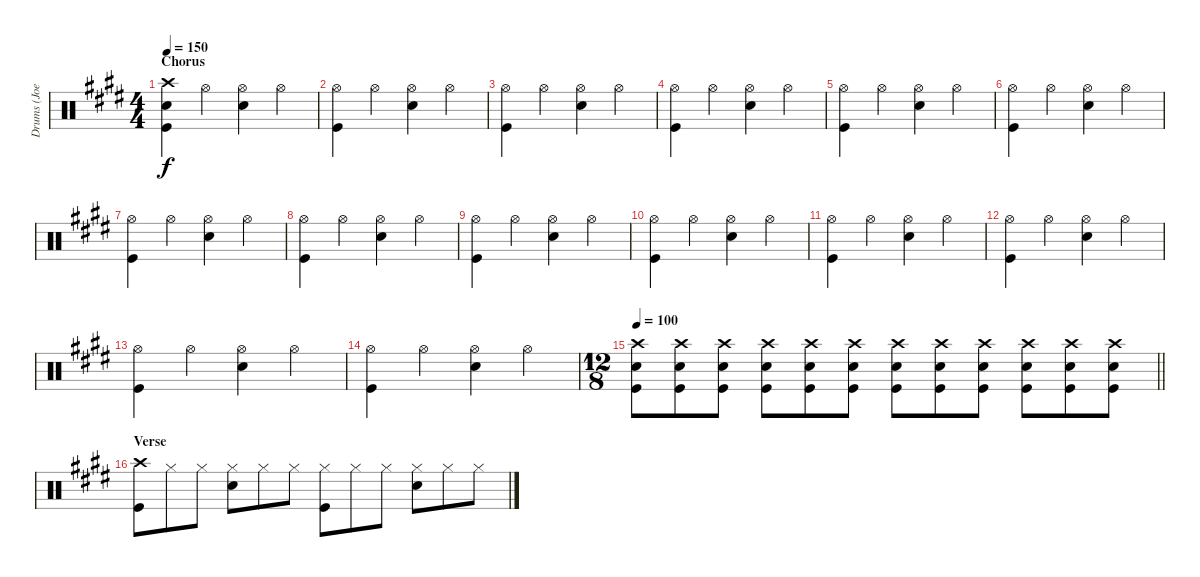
\track ("Drums (Joey Kramer)" "Drums (Joe") {instrument percussion}
\staff {score}
\articulation defaults
\ts (4 4)
\section ("" "Chorus")
\tempo 150
\clef neutral
\ks c#minor
("Crash high (hit)" "Electric Snare (hit)" "Kick (hit)").4{dy f} "Hi-Hat (open)".4 ("Hi-Hat (open)" "Electric Snare (hit)").4 "Hi-Hat (open)".4 |
("Hi-Hat (open)" "Kick (hit)").4 "Hi-Hat (open)".4 ("Hi-Hat (open)" "Electric Snare (hit)").4 "Hi-Hat (open)".4 |
("Hi-Hat (open)" "Kick (hit)").4 "Hi-Hat (open)".4 ("Hi-Hat (open)" "Electric Snare (hit)").4 "Hi-Hat (open)".4 |
("Hi-Hat (open)" "Kick (hit)").4 "Hi-Hat (open)".4 ("Hi-Hat (open)" "Electric Snare (hit)").4 "Hi-Hat (open)".4 |
("Hi-Hat (open)" "Kick (hit)").4 "Hi-Hat (open)".4 ("Hi-Hat (open)" "Electric Snare (hit)").4 "Hi-Hat (open)".4 |
("Hi-Hat (open)" "Kick (hit)").4 "Hi-Hat (open)".4 ("Hi-Hat (open)" "Electric Snare (hit)").4 "Hi-Hat (open)".4 |
("Hi-Hat (open)" "Kick (hit)").4 "Hi-Hat (open)".4 ("Hi-Hat (open)" "Electric Snare (hit)").4 "Hi-Hat (open)".4 |
("Hi-Hat (open)" "Kick (hit)").4 "Hi-Hat (open)".4 ("Hi-Hat (open)" "Electric Snare (hit)").4 "Hi-Hat (open)".4 |
("Hi-Hat (open)" "Kick (hit)").4 "Hi-Hat (open)".4 ("Hi-Hat (open)" "Electric Snare (hit)").4 "Hi-Hat (open)".4 |
("Hi-Hat (open)" "Kick (hit)").4 "Hi-Hat (open)".4 ("Hi-Hat (open)" "Electric Snare (hit)").4 "Hi-Hat (open)".4 |
("Hi-Hat (open)" "Kick (hit)").4 "Hi-Hat (open)".4 ("Hi-Hat (open)" "Electric Snare (hit)").4 "Hi-Hat (open)".4 |
("Hi-Hat (open)" "Kick (hit)").4 "Hi-Hat (open)".4 ("Hi-Hat (open)" "Electric Snare (hit)").4 "Hi-Hat (open)".4 |
("Hi-Hat (open)" "Kick (hit)").4 "Hi-Hat (open)".4 ("Hi-Hat (open)" "Electric Snare (hit)").4 "Hi-Hat (open)".4 |
("Hi-Hat (open)" "Kick (hit)").4 "Hi-Hat (open)".4 ("Hi-Hat (open)" "Electric Snare (hit)").4 "Hi-Hat (open)".4 |
\ts (12 8)
\tempo 100
\barLineRight lightlight
("Crash high (hit)" "Electric Snare (hit)" "Kick (hit)").8 ("Crash high (hit)" "Electric Snare (hit)" "Kick (hit)").8 ("Crash high (hit)" "Electric Snare (hit)" "Kick (hit)").8 ("Crash high (hit)" "Electric Snare (hit)" "Kick (hit)").8 ("Crash high (hit)" "Electric Snare (hit)" "Kick (hit)").8 ("Crash high (hit)" "Electric Snare (hit)" "Kick (hit)").8 ("Crash high (hit)" "Electric Snare (hit)" "Kick (hit)").8 ("Crash high (hit)" "Electric Snare (hit)" "Kick (hit)").8 ("Crash high (hit)" "Electric Snare (hit)" "Kick (hit)").8 ("Crash high (hit)" "Electric Snare (hit)" "Kick (hit)").8 ("Crash high (hit)" "Electric Snare (hit)" "Kick (hit)").8 ("Crash high (hit)" "Electric Snare (hit)" "Kick (hit)").8 |
\section ("" "Verse")
("Crash high (hit)" "Kick (hit)").8 "Hi-Hat (closed)".8 "Hi-Hat (closed)".8 ("Hi-Hat (closed)" "Electric Snare (hit)").8 "Hi-Hat (closed)".8 "Hi-Hat (closed)".8 ("Hi-Hat (closed)" "Kick (hit)").8 "Hi-Hat (closed)".8 "Hi-Hat (closed)".8 ("Hi-Hat (closed)" "Electric Snare (hit)").8 "Hi-Hat (closed)".8 "Hi-Hat (closed)".8
